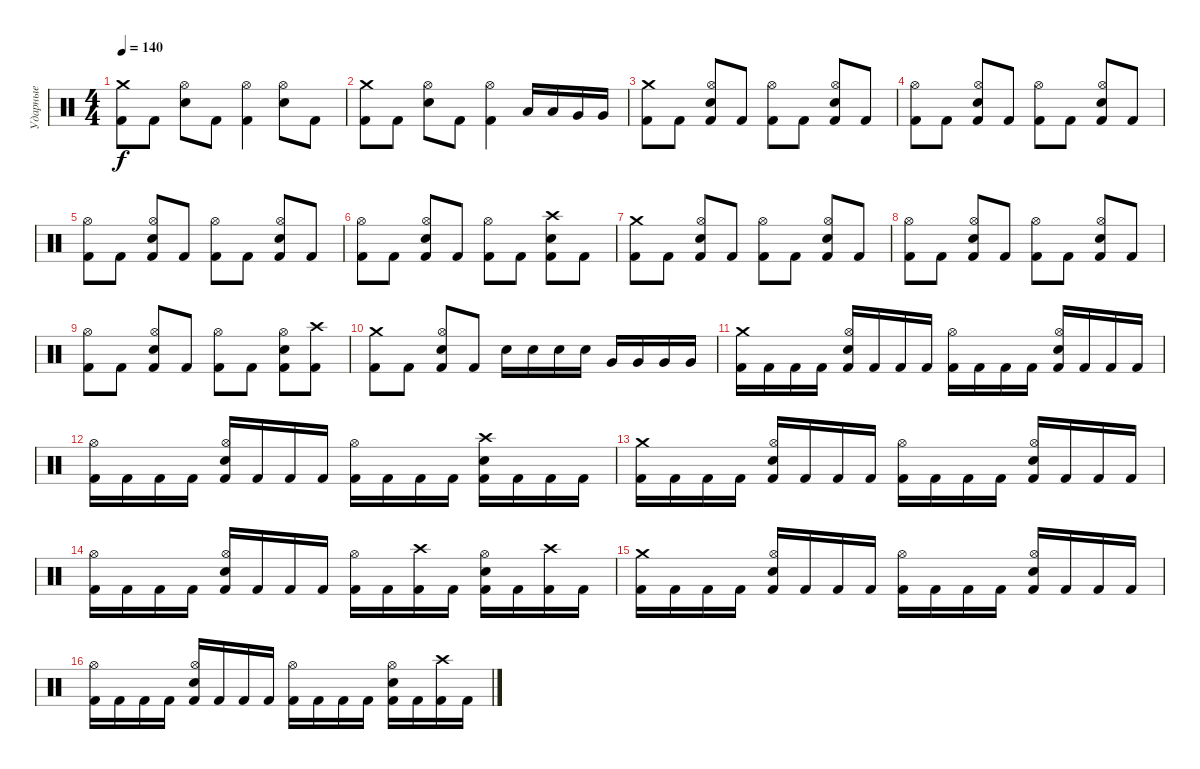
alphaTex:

\track ("Ударные" "Ударные") {instrument percussion}
\staff {score}
\articulation defaults
\ts (4 4)
\tempo 140
\clef neutral
\ks c
("Crash medium (hit)" "Kick (hit) 2").8{dy f} "Kick (hit) 2".8 ("Hi-Hat (open)" "Electric Snare (hit)").8 "Kick (hit) 2".8 ("Hi-Hat (open)" "Kick (hit) 2").4 ("Hi-Hat (open)" "Electric Snare (hit)").8 "Kick (hit) 2".8 |
("Crash medium (hit)" "Kick (hit) 2").8 "Kick (hit) 2".8 ("Hi-Hat (open)" "Electric Snare (hit)").8 "Kick (hit) 2".8 ("Hi-Hat (open)" "Kick (hit) 2").4 "Low Tom (hit)".16 "Low Tom (hit)".16 "Very Low Tom (hit)".16 "Very Low Tom (hit)".16 |
("Crash medium (hit)" "Kick (hit) 2").8 "Kick (hit) 2".8 ("Hi-Hat (open)" "Electric Snare (hit)" "Kick (hit) 2").8 "Kick (hit) 2".8 ("Hi-Hat (open)" "Kick (hit) 2").8 "Kick (hit) 2".8 ("Hi-Hat (open)" "Electric Snare (hit)" "Kick (hit) 2").8 "Kick (hit) 2".8 |
("Hi-Hat (open)" "Kick (hit) 2").8 "Kick (hit) 2".8 ("Hi-Hat (open)" "Electric Snare (hit)" "Kick (hit) 2").8 "Kick (hit) 2".8 ("Hi-Hat (open)" "Kick (hit) 2").8 "Kick (hit) 2".8 ("Hi-Hat (open)" "Electric Snare (hit)" "Kick (hit) 2").8 "Kick (hit) 2".8 |
("Hi-Hat (open)" "Kick (hit) 2").8 "Kick (hit) 2".8 ("Hi-Hat (open)" "Electric Snare (hit)" "Kick (hit) 2").8 "Kick (hit) 2".8 ("Hi-Hat (open)" "Kick (hit) 2").8 "Kick (hit) 2".8 ("Hi-Hat (open)" "Electric Snare (hit)" "Kick (hit) 2").8 "Kick (hit) 2".8 |
("Hi-Hat (open)" "Kick (hit) 2").8 "Kick (hit) 2".8 ("Hi-Hat (open)" "Electric Snare (hit)" "Kick (hit) 2").8 "Kick (hit) 2".8 ("Hi-Hat (open)" "Kick (hit) 2").8 "Kick (hit) 2".8 ("Crash high (hit)" "Electric Snare (hit)" "Kick (hit) 2").8 "Kick (hit) 2".8 |
("Crash medium (hit)" "Kick (hit) 2").8 "Kick (hit) 2".8 ("Hi-Hat (open)" "Electric Snare (hit)" "Kick (hit) 2").8 "Kick (hit) 2".8 ("Hi-Hat (open)" "Kick (hit) 2").8 "Kick (hit) 2".8 ("Hi-Hat (open)" "Electric Snare (hit)" "Kick (hit) 2").8 "Kick (hit) 2".8 |
("Hi-Hat (open)" "Kick (hit) 2").8 "Kick (hit) 2".8 ("Hi-Hat (open)" "Electric Snare (hit)" "Kick (hit) 2").8 "Kick (hit) 2".8 ("Hi-Hat (open)" "Kick (hit) 2").8 "Kick (hit) 2".8 ("Hi-Hat (open)" "Electric Snare (hit)" "Kick (hit) 2").8 "Kick (hit) 2".8 |
("Hi-Hat (open)" "Kick (hit) 2").8 "Kick (hit) 2".8 ("Hi-Hat (open)" "Electric Snare (hit)" "Kick (hit) 2").8 "Kick (hit) 2".8 ("Hi-Hat (open)" "Kick (hit) 2").8 "Kick (hit) 2".8 ("Hi-Hat (open)" "Electric Snare (hit)" "Kick (hit) 2").8 ("Crash high (hit)" "Kick (hit) 2").8 |
("Crash medium (hit)" "Kick (hit) 2").8 "Kick (hit) 2".8 ("Hi-Hat (open)" "Electric Snare (hit)" "Kick (hit) 2").8 "Kick (hit) 2".8 "Electric Snare (hit)".16 "Electric Snare (hit)".16 "Electric Snare (hit)".16 "Electric Snare (hit)".16 "Very Low Tom (hit)".16 "Very Low Tom (hit)".16 "Very Low Tom (hit)".16 "Very Low Tom (hit)".16 |
("Crash medium (hit)" "Kick (hit) 2").16 "Kick (hit) 2".16 "Kick (hit) 2".16 "Kick (hit) 2".16 ("Hi-Hat (open)" "Electric Snare (hit)" "Kick (hit) 2").16 "Kick (hit) 2".16 "Kick (hit) 2".16 "Kick (hit) 2".16 ("Hi-Hat (open)" "Kick (hit) 2").16 "Kick (hit) 2".16 "Kick (hit) 2".16 "Kick (hit) 2".16 ("Hi-Hat (open)" "Electric Snare (hit)" "Kick (hit) 2").16 "Kick (hit) 2".16 "Kick (hit) 2".16 "Kick (hit) 2".16 |
("Hi-Hat (open)" "Kick (hit) 2").16 "Kick (hit) 2".16 "Kick (hit) 2".16 "Kick (hit) 2".16 ("Hi-Hat (open)" "Electric Snare (hit)" "Kick (hit) 2").16 "Kick (hit) 2".16 "Kick (hit) 2".16 "Kick (hit) 2".16 ("Hi-Hat (open)" "Kick (hit) 2").16 "Kick (hit) 2".16 "Kick (hit) 2".16 "Kick (hit) 2".16 ("Crash high (hit)" "Electric Snare (hit)" "Kick (hit) 2").16 "Kick (hit) 2".16 "Kick (hit) 2".16 "Kick (hit) 2".16 |
("Crash medium (hit)" "Kick (hit) 2").16 "Kick (hit) 2".16 "Kick (hit) 2".16 "Kick (hit) 2".16 ("Hi-Hat (open)" "Electric Snare (hit)" "Kick (hit) 2").16 "Kick (hit) 2".16 "Kick (hit) 2".16 "Kick (hit) 2".16 ("Hi-Hat (open)" "Kick (hit) 2").16 "Kick (hit) 2".16 "Kick (hit) 2".16 "Kick (hit) 2".16 ("Hi-Hat (open)" "Electric Snare (hit)" "Kick (hit) 2").16 "Kick (hit) 2".16 "Kick (hit) 2".16 "Kick (hit) 2".16 |
("Hi-Hat (open)" "Kick (hit) 2").16 "Kick (hit) 2".16 "Kick (hit) 2".16 "Kick (hit) 2".16 ("Hi-Hat (open)" "Electric Snare (hit)" "Kick (hit) 2").16 "Kick (hit) 2".16 "Kick (hit) 2".16 "Kick (hit) 2".16 ("Hi-Hat (open)" "Kick (hit) 2").16 "Kick (hit) 2".16 ("Crash high (hit)" "Kick (hit) 2").16 "Kick (hit) 2".16 ("Hi-Hat (open)" "Electric Snare (hit)" "Kick (hit) 2").16 "Kick (hit) 2".16 ("Crash high (hit)" "Kick (hit) 2").16 "Kick (hit) 2".16 |
("Crash medium (hit)" "Kick (hit) 2").16 "Kick (hit) 2".16 "Kick (hit) 2".16 "Kick (hit) 2".16 ("Hi-Hat (open)" "Electric Snare (hit)" "Kick (hit) 2").16 "Kick (hit) 2".16 "Kick (hit) 2".16 "Kick (hit) 2".16 ("Hi-Hat (open)" "Kick (hit) 2").16 "Kick (hit) 2".16 "Kick (hit) 2".16 "Kick (hit) 2".16 ("Hi-Hat (open)" "Electric Snare (hit)" "Kick (hit) 2").16 "Kick (hit) 2".16 "Kick (hit) 2".16 "Kick (hit) 2".16 |
("Hi-Hat (open)" "Kick (hit) 2").16 "Kick (hit) 2".16 "Kick (hit) 2".16 "Kick (hit) 2".16 ("Hi-Hat (open)" "Electric Snare (hit)" "Kick (hit) 2").16 "Kick (hit) 2".16 "Kick (hit) 2".16 "Kick (hit) 2".16 ("Hi-Hat (open)" "Kick (hit) 2").16 "Kick (hit) 2".16 "Kick (hit) 2".16 "Kick (hit) 2".16 ("Hi-Hat (open)" "Electric Snare (hit)" "Kick (hit) 2").16 "Kick (hit) 2".16 ("Crash high (hit)" "Kick (hit) 2").16 "Kick (hit) 2".16
